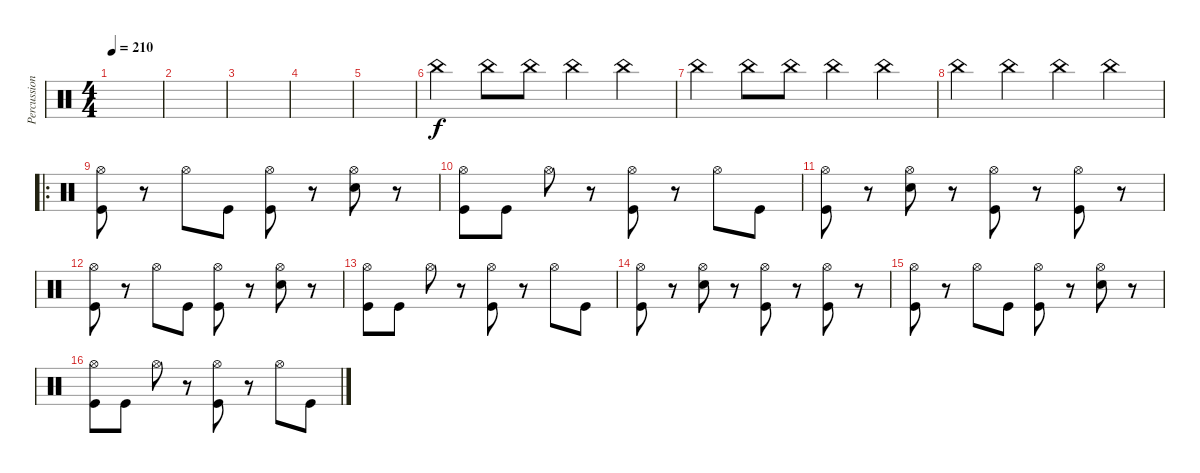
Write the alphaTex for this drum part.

\track ("Percussion" "Percussion") {instrument percussion}
\staff {score}
\articulation defaults
\ts (4 4)
\tempo 210
\clef neutral
\ks c
|
|
|
|
|
"China (hit)".4{volume 13} "China (hit)".8 "China (hit)".8 "China (hit)".4 "China (hit)".4 |
"China (hit)".4 "China (hit)".8 "China (hit)".8 "China (hit)".4 "China (hit)".4 |
"China (hit)".4 "China (hit)".4 "China (hit)".4 "China (hit)".4 |
\ro
("Hi-Hat (open)" "Kick (hit)").8{volume 13} r.8 "Hi-Hat (open)".8 "Kick (hit)".8 ("Hi-Hat (open)" "Kick (hit)").8 r.8 ("Hi-Hat (open)" "Electric Snare (hit)").8 r.8 |
("Hi-Hat (open)" "Kick (hit)").8 "Kick (hit)".8 "Hi-Hat (open)".8 r.8 ("Hi-Hat (open)" "Kick (hit)").8 r.8 "Hi-Hat (open)".8 "Kick (hit)".8 |
("Hi-Hat (open)" "Kick (hit)").8 r.8 ("Hi-Hat (open)" "Electric Snare (hit)").8 r.8 ("Hi-Hat (open)" "Kick (hit)").8 r.8 ("Hi-Hat (open)" "Kick (hit)").8 r.8 |
("Hi-Hat (open)" "Kick (hit)").8 r.8 "Hi-Hat (open)".8 "Kick (hit)".8 ("Hi-Hat (open)" "Kick (hit)").8 r.8 ("Hi-Hat (open)" "Electric Snare (hit)").8 r.8 |
("Hi-Hat (open)" "Kick (hit)").8 "Kick (hit)".8 "Hi-Hat (open)".8 r.8 ("Hi-Hat (open)" "Kick (hit)").8 r.8 "Hi-Hat (open)".8 "Kick (hit)".8 |
("Hi-Hat (open)" "Kick (hit)").8 r.8 ("Hi-Hat (open)" "Electric Snare (hit)").8 r.8 ("Hi-Hat (open)" "Kick (hit)").8 r.8 ("Hi-Hat (open)" "Kick (hit)").8 r.8 |
("Hi-Hat (open)" "Kick (hit)").8 r.8 "Hi-Hat (open)".8 "Kick (hit)".8 ("Hi-Hat (open)" "Kick (hit)").8 r.8 ("Hi-Hat (open)" "Electric Snare (hit)").8 r.8 |
("Hi-Hat (open)" "Kick (hit)").8 "Kick (hit)".8 "Hi-Hat (open)".8 r.8 ("Hi-Hat (open)" "Kick (hit)").8 r.8 "Hi-Hat (open)".8 "Kick (hit)".8
